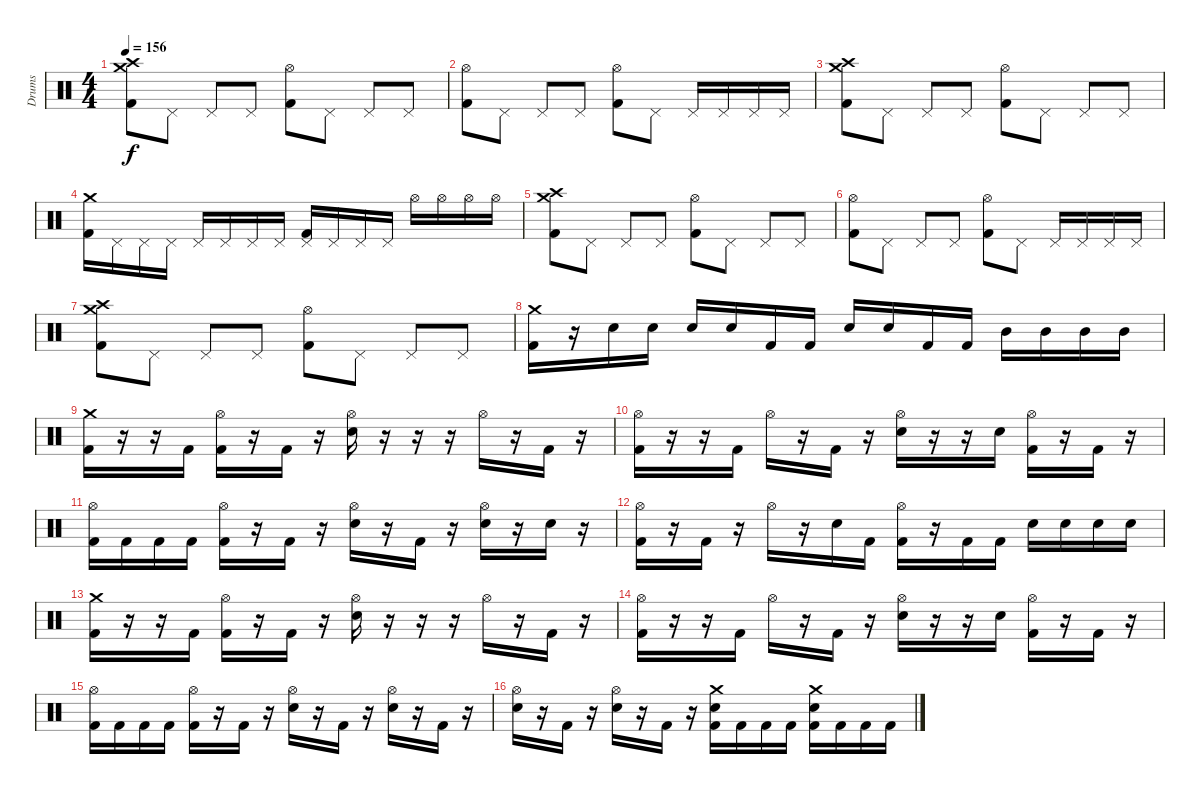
\track ("Drums" "Drums") {instrument percussion}
\staff {score}
\articulation defaults
\ts (4 4)
\tempo 156
\clef neutral
\ks c
("Crash high (hit)" "Crash medium (hit)" "Kick (hit) 2").8{dy f} "Pedal Hi-Hat (hit)".8 "Pedal Hi-Hat (hit)".8 "Pedal Hi-Hat (hit)".8 ("Hi-Hat (open)" "Kick (hit) 2").8 "Pedal Hi-Hat (hit)".8 "Pedal Hi-Hat (hit)".8 "Pedal Hi-Hat (hit)".8 |
("Hi-Hat (open)" "Kick (hit) 2").8 "Pedal Hi-Hat (hit)".8 "Pedal Hi-Hat (hit)".8 "Pedal Hi-Hat (hit)".8 ("Hi-Hat (open)" "Kick (hit) 2").8 "Pedal Hi-Hat (hit)".8 "Pedal Hi-Hat (hit)".16 "Pedal Hi-Hat (hit)".16 "Pedal Hi-Hat (hit)".16 "Pedal Hi-Hat (hit)".16 |
("Crash high (hit)" "Crash medium (hit)" "Kick (hit) 2").8 "Pedal Hi-Hat (hit)".8 "Pedal Hi-Hat (hit)".8 "Pedal Hi-Hat (hit)".8 ("Hi-Hat (open)" "Kick (hit) 2").8 "Pedal Hi-Hat (hit)".8 "Pedal Hi-Hat (hit)".8 "Pedal Hi-Hat (hit)".8 |
("Crash medium (hit)" "Kick (hit) 2").16 "Pedal Hi-Hat (hit)".16 "Pedal Hi-Hat (hit)".16 "Pedal Hi-Hat (hit)".16 "Pedal Hi-Hat (hit)".16 "Pedal Hi-Hat (hit)".16 "Pedal Hi-Hat (hit)".16 "Pedal Hi-Hat (hit)".16 ("Pedal Hi-Hat (hit)" "Kick (hit) 2").16 "Pedal Hi-Hat (hit)".16 "Pedal Hi-Hat (hit)".16 "Pedal Hi-Hat (hit)".16 "Hi-Hat (open)".16 "Hi-Hat (open)".16 "Hi-Hat (open)".16 "Hi-Hat (open)".16 |
("Crash high (hit)" "Crash medium (hit)" "Kick (hit) 2").8 "Pedal Hi-Hat (hit)".8 "Pedal Hi-Hat (hit)".8 "Pedal Hi-Hat (hit)".8 ("Hi-Hat (open)" "Kick (hit) 2").8 "Pedal Hi-Hat (hit)".8 "Pedal Hi-Hat (hit)".8 "Pedal Hi-Hat (hit)".8 |
("Hi-Hat (open)" "Kick (hit) 2").8 "Pedal Hi-Hat (hit)".8 "Pedal Hi-Hat (hit)".8 "Pedal Hi-Hat (hit)".8 ("Hi-Hat (open)" "Kick (hit) 2").8 "Pedal Hi-Hat (hit)".8 "Pedal Hi-Hat (hit)".16 "Pedal Hi-Hat (hit)".16 "Pedal Hi-Hat (hit)".16 "Pedal Hi-Hat (hit)".16 |
("Crash high (hit)" "Crash medium (hit)" "Kick (hit) 2").8 "Pedal Hi-Hat (hit)".8 "Pedal Hi-Hat (hit)".8 "Pedal Hi-Hat (hit)".8 ("Hi-Hat (open)" "Kick (hit) 2").8 "Pedal Hi-Hat (hit)".8 "Pedal Hi-Hat (hit)".8 "Pedal Hi-Hat (hit)".8 |
("Crash medium (hit)" "Kick (hit) 2").16 r.16 "Snare (hit) 2".16 "Snare (hit) 2".16 "Snare (hit) 2".16 "Snare (hit) 2".16 "Kick (hit) 2".16 "Kick (hit) 2".16 "Snare (hit) 2".16 "Snare (hit) 2".16 "Kick (hit) 2".16 "Kick (hit) 2".16 "Mid Tom (hit)".16 "Mid Tom (hit)".16 "Mid Tom (hit)".16 "Mid Tom (hit)".16 |
("Crash medium (hit)" "Kick (hit) 2").16 r.16 r.16 "Kick (hit) 2".16 ("Hi-Hat (open)" "Kick (hit) 2").16 r.16 "Kick (hit) 2".16 r.16 ("Hi-Hat (open)" "Snare (hit) 2").16 r.16 r.16 r.16 "Hi-Hat (open)".16 r.16 "Kick (hit) 2".16 r.16 |
("Hi-Hat (open)" "Kick (hit) 2").16 r.16 r.16 "Kick (hit) 2".16 "Hi-Hat (open)".16 r.16 "Kick (hit) 2".16 r.16 ("Hi-Hat (open)" "Snare (hit) 2").16 r.16 r.16 "Snare (hit) 2".16 ("Hi-Hat (open)" "Kick (hit) 2").16 r.16 "Kick (hit) 2".16 r.16 |
("Hi-Hat (open)" "Kick (hit) 2").16 "Kick (hit) 2".16 "Kick (hit) 2".16 "Kick (hit) 2".16 ("Hi-Hat (open)" "Kick (hit) 2").16 r.16 "Kick (hit) 2".16 r.16 ("Hi-Hat (open)" "Snare (hit) 2").16 r.16 "Kick (hit) 2".16 r.16 ("Hi-Hat (open)" "Snare (hit) 2").16 r.16 "Snare (hit) 2".16 r.16 |
("Hi-Hat (open)" "Kick (hit) 2").16 r.16 "Kick (hit) 2".16 r.16 "Hi-Hat (open)".16 r.16 "Snare (hit) 2".16 "Kick (hit) 2".16 ("Hi-Hat (open)" "Kick (hit) 2").16 r.16 "Kick (hit) 2".16 "Kick (hit) 2".16 "Snare (hit) 2".16 "Snare (hit) 2".16 "Snare (hit) 2".16 "Snare (hit) 2".16 |
("Crash medium (hit)" "Kick (hit) 2").16 r.16 r.16 "Kick (hit) 2".16 ("Hi-Hat (open)" "Kick (hit) 2").16 r.16 "Kick (hit) 2".16 r.16 ("Hi-Hat (open)" "Snare (hit) 2").16 r.16 r.16 r.16 "Hi-Hat (open)".16 r.16 "Kick (hit) 2".16 r.16 |
("Hi-Hat (open)" "Kick (hit) 2").16 r.16 r.16 "Kick (hit) 2".16 "Hi-Hat (open)".16 r.16 "Kick (hit) 2".16 r.16 ("Hi-Hat (open)" "Snare (hit) 2").16 r.16 r.16 "Snare (hit) 2".16 ("Hi-Hat (open)" "Kick (hit) 2").16 r.16 "Kick (hit) 2".16 r.16 |
("Hi-Hat (open)" "Kick (hit) 2").16 "Kick (hit) 2".16 "Kick (hit) 2".16 "Kick (hit) 2".16 ("Hi-Hat (open)" "Kick (hit) 2").16 r.16 "Kick (hit) 2".16 r.16 ("Hi-Hat (open)" "Snare (hit) 2").16 r.16 "Kick (hit) 2".16 r.16 ("Hi-Hat (open)" "Snare (hit) 2").16 r.16 "Kick (hit) 2".16 r.16 |
("Hi-Hat (open)" "Snare (hit) 2").16 r.16 "Kick (hit) 2".16 r.16 ("Hi-Hat (open)" "Snare (hit) 2").16 r.16 "Kick (hit) 2".16 r.16 ("Crash medium (hit)" "Snare (hit) 2" "Kick (hit) 2").16 "Kick (hit) 2".16 "Kick (hit) 2".16 "Kick (hit) 2".16 ("Crash medium (hit)" "Snare (hit) 2" "Kick (hit) 2").16 "Kick (hit) 2".16 "Kick (hit) 2".16 "Kick (hit) 2".16
